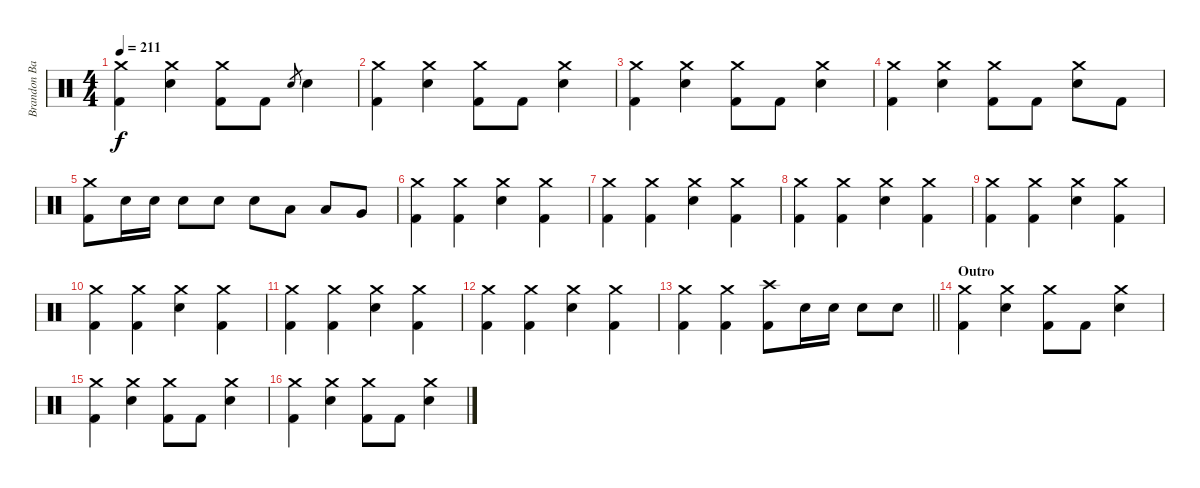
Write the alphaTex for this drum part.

\track ("Brandon Barnes - Drums" "Brandon Ba") {instrument percussion}
\staff {score}
\articulation defaults
\ts (4 4)
\tempo 211
\clef neutral
\ks c
("Crash medium (hit)" "Kick (hit) 2").4{dy f} ("Crash medium (hit)" "Electric Snare (hit)").4 ("Crash medium (hit)" "Kick (hit) 2").8 "Kick (hit) 2".8 "Electric Snare (hit)".8{gr} "Electric Snare (hit)".4 |
("Crash medium (hit)" "Kick (hit) 2").4 ("Crash medium (hit)" "Electric Snare (hit)").4 ("Crash medium (hit)" "Kick (hit) 2").8 "Kick (hit) 2".8 ("Crash medium (hit)" "Electric Snare (hit)").4 |
("Crash medium (hit)" "Kick (hit) 2").4 ("Crash medium (hit)" "Electric Snare (hit)").4 ("Crash medium (hit)" "Kick (hit) 2").8 "Kick (hit) 2".8 ("Crash medium (hit)" "Electric Snare (hit)").4 |
("Crash medium (hit)" "Kick (hit) 2").4 ("Crash medium (hit)" "Electric Snare (hit)").4 ("Crash medium (hit)" "Kick (hit) 2").8 "Kick (hit) 2".8 ("Crash medium (hit)" "Electric Snare (hit)").8 "Kick (hit) 2".8 |
("Crash medium (hit)" "Kick (hit) 2").8 "Electric Snare (hit)".16 "Electric Snare (hit)".16 "Electric Snare (hit)".8 "Electric Snare (hit)".8 "Electric Snare (hit)".8 "Low Tom (hit)".8 "Low Tom (hit)".8 "Very Low Tom (hit)".8 |
("Crash medium (hit)" "Kick (hit) 2").4 ("Crash medium (hit)" "Kick (hit) 2").4 ("Crash medium (hit)" "Electric Snare (hit)").4 ("Crash medium (hit)" "Kick (hit) 2").4 |
("Crash medium (hit)" "Kick (hit) 2").4 ("Crash medium (hit)" "Kick (hit) 2").4 ("Crash medium (hit)" "Electric Snare (hit)").4 ("Crash medium (hit)" "Kick (hit) 2").4 |
("Crash medium (hit)" "Kick (hit) 2").4 ("Crash medium (hit)" "Kick (hit) 2").4 ("Crash medium (hit)" "Electric Snare (hit)").4 ("Crash medium (hit)" "Kick (hit) 2").4 |
("Crash medium (hit)" "Kick (hit) 2").4 ("Crash medium (hit)" "Kick (hit) 2").4 ("Crash medium (hit)" "Electric Snare (hit)").4 ("Crash medium (hit)" "Kick (hit) 2").4 |
("Crash medium (hit)" "Kick (hit) 2").4 ("Crash medium (hit)" "Kick (hit) 2").4 ("Crash medium (hit)" "Electric Snare (hit)").4 ("Crash medium (hit)" "Kick (hit) 2").4 |
("Crash medium (hit)" "Kick (hit) 2").4 ("Crash medium (hit)" "Kick (hit) 2").4 ("Crash medium (hit)" "Electric Snare (hit)").4 ("Crash medium (hit)" "Kick (hit) 2").4 |
("Crash medium (hit)" "Kick (hit) 2").4 ("Crash medium (hit)" "Kick (hit) 2").4 ("Crash medium (hit)" "Electric Snare (hit)").4 ("Crash medium (hit)" "Kick (hit) 2").4 |
\barLineRight lightlight
("Crash medium (hit)" "Kick (hit) 2").4 ("Crash medium (hit)" "Kick (hit) 2").4 ("Crash high (hit)" "Kick (hit) 2").8 "Electric Snare (hit)".16 "Electric Snare (hit)".16 "Electric Snare (hit)".8 "Electric Snare (hit)".8 |
\section ("" "Outro")
("Crash medium (hit)" "Kick (hit) 2").4 ("Crash medium (hit)" "Electric Snare (hit)").4 ("Crash medium (hit)" "Kick (hit) 2").8 "Kick (hit) 2".8 ("Crash medium (hit)" "Electric Snare (hit)").4 |
("Crash medium (hit)" "Kick (hit) 2").4 ("Crash medium (hit)" "Electric Snare (hit)").4 ("Crash medium (hit)" "Kick (hit) 2").8 "Kick (hit) 2".8 ("Crash medium (hit)" "Electric Snare (hit)").4 |
("Crash medium (hit)" "Kick (hit) 2").4 ("Crash medium (hit)" "Electric Snare (hit)").4 ("Crash medium (hit)" "Kick (hit) 2").8 "Kick (hit) 2".8 ("Crash medium (hit)" "Electric Snare (hit)").4
